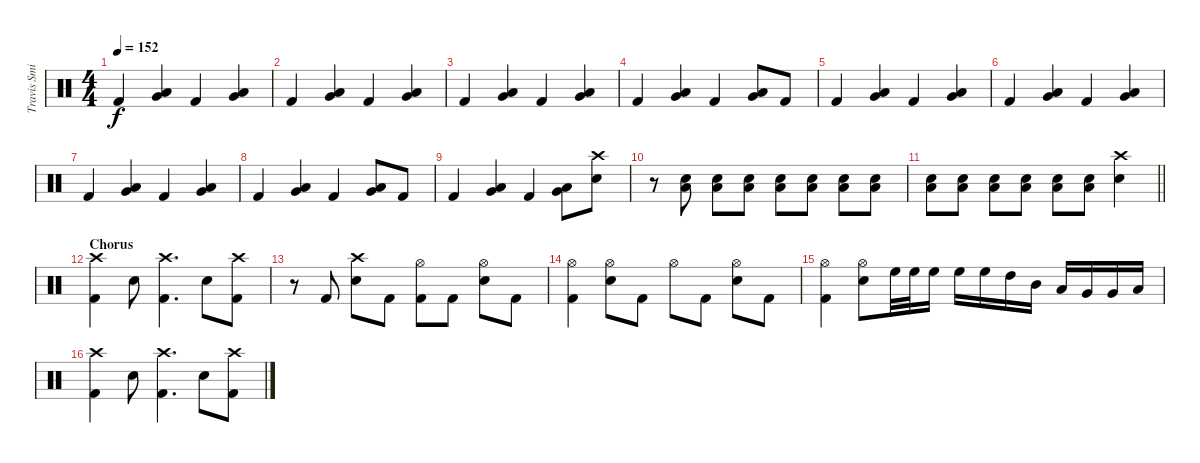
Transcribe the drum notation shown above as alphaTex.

\track ("Travis Smith" "Travis Smi") {instrument percussion}
\staff {score}
\articulation defaults
\ts (4 4)
\tempo 152
\clef neutral
\ks c "Kick (hit) 2".4{dy f}
("Low Tom (hit)" "Very Low Tom (hit)").4 "Kick (hit) 2".4 ("Low Tom (hit)" "Very Low Tom (hit)").4 |
"Kick (hit) 2".4 ("Low Tom (hit)" "Very Low Tom (hit)").4 "Kick (hit) 2".4 ("Low Tom (hit)" "Very Low Tom (hit)").4 |
"Kick (hit) 2".4 ("Low Tom (hit)" "Very Low Tom (hit)").4 "Kick (hit) 2".4 ("Low Tom (hit)" "Very Low Tom (hit)").4 |
"Kick (hit) 2".4 ("Low Tom (hit)" "Very Low Tom (hit)").4 "Kick (hit) 2".4 ("Low Tom (hit)" "Very Low Tom (hit)").8 "Kick (hit) 2".8 |
"Kick (hit) 2".4 ("Low Tom (hit)" "Very Low Tom (hit)").4 "Kick (hit) 2".4 ("Low Tom (hit)" "Very Low Tom (hit)").4 |
"Kick (hit) 2".4 ("Low Tom (hit)" "Very Low Tom (hit)").4 "Kick (hit) 2".4 ("Low Tom (hit)" "Very Low Tom (hit)").4 |
"Kick (hit) 2".4 ("Low Tom (hit)" "Very Low Tom (hit)").4 "Kick (hit) 2".4 ("Low Tom (hit)" "Very Low Tom (hit)").4 |
"Kick (hit) 2".4 ("Low Tom (hit)" "Very Low Tom (hit)").4 "Kick (hit) 2".4 ("Low Tom (hit)" "Very Low Tom (hit)").8 "Kick (hit) 2".8 |
"Kick (hit) 2".4 ("Low Tom (hit)" "Very Low Tom (hit)").4 "Kick (hit) 2".4 ("Low Tom (hit)" "Very Low Tom (hit)").8 ("Snare (hit) 2" "Crash high (hit)").8 |
r.8 ("Snare (hit) 2" "Low Floor Tom (hit)").8 ("Snare (hit) 2" "Low Floor Tom (hit)").8 ("Snare (hit) 2" "Low Floor Tom (hit)").8 ("Snare (hit) 2" "Low Floor Tom (hit)").8 ("Snare (hit) 2" "Low Floor Tom (hit)").8 ("Snare (hit) 2" "Low Floor Tom (hit)").8 ("Snare (hit) 2" "Low Floor Tom (hit)").8 |
\barLineRight lightlight
("Snare (hit) 2" "Low Floor Tom (hit)").8 ("Snare (hit) 2" "Low Floor Tom (hit)").8 ("Snare (hit) 2" "Low Floor Tom (hit)").8 ("Snare (hit) 2" "Low Floor Tom (hit)").8 ("Snare (hit) 2" "Low Floor Tom (hit)").8 ("Snare (hit) 2" "Low Floor Tom (hit)").8 ("Snare (hit) 2" "Crash high (hit)").4 |
\section ("" "Chorus")
("Kick (hit) 2" "Crash high (hit)").4 "Snare (hit) 2".8 ("Kick (hit) 2" "Crash high (hit)").4{d} "Snare (hit) 2".8 ("Kick (hit) 2" "Crash high (hit)").8 |
r.8 "Kick (hit) 2".8 ("Snare (hit) 2" "Crash high (hit)").8 "Kick (hit) 2".8 ("Kick (hit) 2" "Hi-Hat (open)").8 "Kick (hit) 2".8 ("Snare (hit) 2" "Hi-Hat (open)").8 "Kick (hit) 2".8 |
("Kick (hit) 2" "Hi-Hat (open)").4 ("Snare (hit) 2" "Hi-Hat (open)").8 "Kick (hit) 2".8 "Hi-Hat (open)".8 "Kick (hit) 2".8 ("Snare (hit) 2" "Hi-Hat (open)").8 "Kick (hit) 2".8 |
("Kick (hit) 2" "Hi-Hat (open)").4 ("Snare (hit) 2" "Hi-Hat (open)").8 "High Floor Tom (hit)".32 "High Floor Tom (hit)".32 "High Floor Tom (hit)".16 "High Floor Tom (hit)".16 "High Floor Tom (hit)".16 "High Tom (hit)".16 "Mid Tom (hit)".16 "Low Tom (hit)".16 "Very Low Tom (hit)".16 "Very Low Tom (hit)".16 "Low Floor Tom (hit)".16 |
("Kick (hit) 2" "Crash high (hit)").4 "Snare (hit) 2".8 ("Kick (hit) 2" "Crash high (hit)").4{d} "Snare (hit) 2".8 ("Kick (hit) 2" "Crash high (hit)").8
